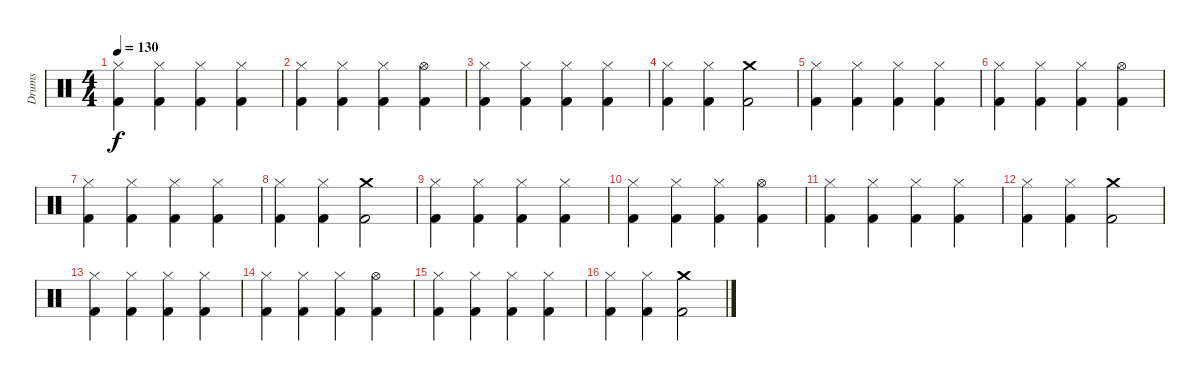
\track ("Drums" "Drums") {instrument percussion}
\staff {score}
\articulation defaults
\ts (4 4)
\tempo 130
\clef neutral
\ks c
("Hi-Hat (closed)" "Kick (hit) 2").4{dy f} ("Hi-Hat (closed)" "Kick (hit) 2").4 ("Hi-Hat (closed)" "Kick (hit) 2").4 ("Hi-Hat (closed)" "Kick (hit) 2").4 |
("Hi-Hat (closed)" "Kick (hit) 2").4 ("Hi-Hat (closed)" "Kick (hit) 2").4 ("Hi-Hat (closed)" "Kick (hit) 2").4 ("Hi-Hat (open)" "Kick (hit) 2").4 |
("Hi-Hat (closed)" "Kick (hit) 2").4 ("Hi-Hat (closed)" "Kick (hit) 2").4 ("Hi-Hat (closed)" "Kick (hit) 2").4 ("Hi-Hat (closed)" "Kick (hit) 2").4 |
("Hi-Hat (closed)" "Kick (hit) 2").4 ("Hi-Hat (closed)" "Kick (hit) 2").4 ("Crash medium (hit)" "Kick (hit) 2").2 |
("Hi-Hat (closed)" "Kick (hit) 2").4 ("Hi-Hat (closed)" "Kick (hit) 2").4 ("Hi-Hat (closed)" "Kick (hit) 2").4 ("Hi-Hat (closed)" "Kick (hit) 2").4 |
("Hi-Hat (closed)" "Kick (hit) 2").4 ("Hi-Hat (closed)" "Kick (hit) 2").4 ("Hi-Hat (closed)" "Kick (hit) 2").4 ("Hi-Hat (open)" "Kick (hit) 2").4 |
("Hi-Hat (closed)" "Kick (hit) 2").4 ("Hi-Hat (closed)" "Kick (hit) 2").4 ("Hi-Hat (closed)" "Kick (hit) 2").4 ("Hi-Hat (closed)" "Kick (hit) 2").4 |
("Hi-Hat (closed)" "Kick (hit) 2").4 ("Hi-Hat (closed)" "Kick (hit) 2").4 ("Crash medium (hit)" "Kick (hit) 2").2 |
("Hi-Hat (closed)" "Kick (hit) 2").4 ("Hi-Hat (closed)" "Kick (hit) 2").4 ("Hi-Hat (closed)" "Kick (hit) 2").4 ("Hi-Hat (closed)" "Kick (hit) 2").4 |
("Hi-Hat (closed)" "Kick (hit) 2").4 ("Hi-Hat (closed)" "Kick (hit) 2").4 ("Hi-Hat (closed)" "Kick (hit) 2").4 ("Hi-Hat (open)" "Kick (hit) 2").4 |
("Hi-Hat (closed)" "Kick (hit) 2").4 ("Hi-Hat (closed)" "Kick (hit) 2").4 ("Hi-Hat (closed)" "Kick (hit) 2").4 ("Hi-Hat (closed)" "Kick (hit) 2").4 |
("Hi-Hat (closed)" "Kick (hit) 2").4 ("Hi-Hat (closed)" "Kick (hit) 2").4 ("Crash medium (hit)" "Kick (hit) 2").2 |
("Hi-Hat (closed)" "Kick (hit) 2").4 ("Hi-Hat (closed)" "Kick (hit) 2").4 ("Hi-Hat (closed)" "Kick (hit) 2").4 ("Hi-Hat (closed)" "Kick (hit) 2").4 |
("Hi-Hat (closed)" "Kick (hit) 2").4 ("Hi-Hat (closed)" "Kick (hit) 2").4 ("Hi-Hat (closed)" "Kick (hit) 2").4 ("Hi-Hat (open)" "Kick (hit) 2").4 |
("Hi-Hat (closed)" "Kick (hit) 2").4 ("Hi-Hat (closed)" "Kick (hit) 2").4 ("Hi-Hat (closed)" "Kick (hit) 2").4 ("Hi-Hat (closed)" "Kick (hit) 2").4 |
("Hi-Hat (closed)" "Kick (hit) 2").4 ("Hi-Hat (closed)" "Kick (hit) 2").4 ("Crash medium (hit)" "Kick (hit) 2").2
